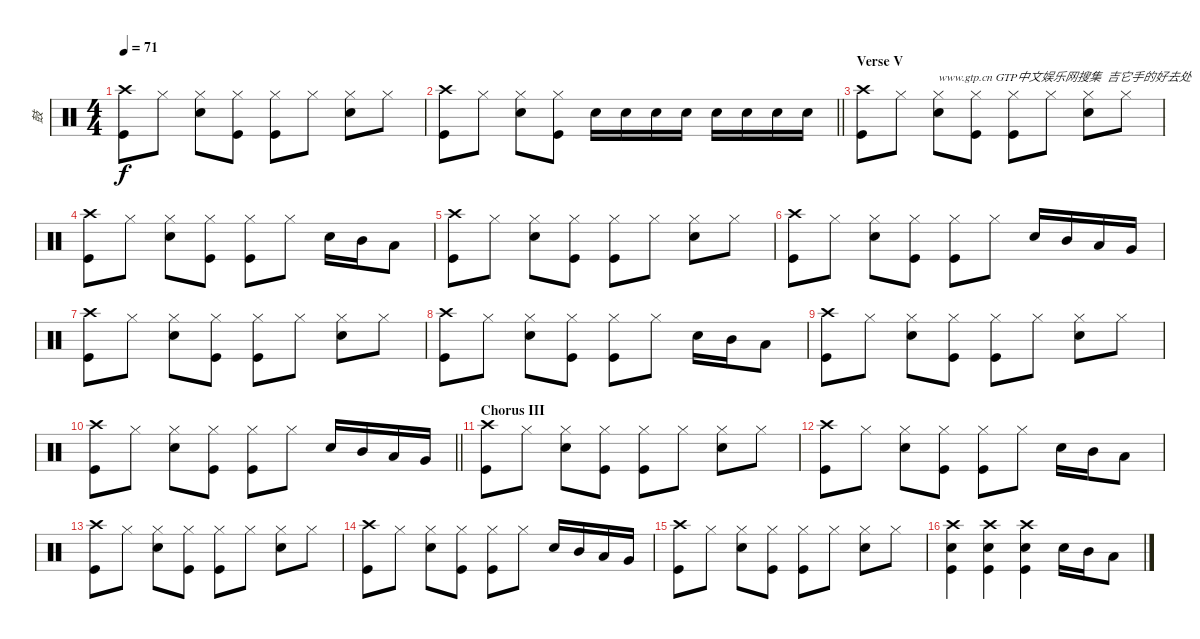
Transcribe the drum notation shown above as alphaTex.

\track ("鼓" "鼓") {instrument percussion}
\staff {score}
\articulation defaults
\ts (4 4)
\tempo 71
\clef neutral
\ks c
("Crash high (hit)" "Kick (hit)").8{dy f} "Hi-Hat (closed)".8 ("Hi-Hat (closed)" "Electric Snare (hit)").8 ("Hi-Hat (closed)" "Kick (hit)").8 ("Hi-Hat (closed)" "Kick (hit)").8 "Hi-Hat (closed)".8 ("Hi-Hat (closed)" "Electric Snare (hit)").8 "Hi-Hat (closed)".8 |
\barLineRight lightlight
("Crash high (hit)" "Kick (hit)").8 "Hi-Hat (closed)".8 ("Hi-Hat (closed)" "Electric Snare (hit)").8 ("Hi-Hat (closed)" "Kick (hit)").8 "Electric Snare (hit)".16 "Electric Snare (hit)".16 "Electric Snare (hit)".16 "Electric Snare (hit)".16 "Electric Snare (hit)".16 "Electric Snare (hit)".16 "Electric Snare (hit)".16 "Electric Snare (hit)".16 |
\section ("" "Verse V")
("Crash high (hit)" "Kick (hit)").8 "Hi-Hat (closed)".8 ("Hi-Hat (closed)" "Electric Snare (hit)").8{txt "www.gtp.cn GTP中文娱乐网搜集  吉它手的好去处"} ("Hi-Hat (closed)" "Kick (hit)").8 ("Hi-Hat (closed)" "Kick (hit)").8 "Hi-Hat (closed)".8 ("Hi-Hat (closed)" "Electric Snare (hit)").8 "Hi-Hat (closed)".8 |
("Crash high (hit)" "Kick (hit)").8 "Hi-Hat (closed)".8 ("Hi-Hat (closed)" "Electric Snare (hit)").8 ("Hi-Hat (closed)" "Kick (hit)").8 ("Hi-Hat (closed)" "Kick (hit)").8 "Hi-Hat (closed)".8 "Electric Snare (hit)".16 "Mid Tom (hit)".16 "Low Tom (hit)".8 |
("Crash high (hit)" "Kick (hit)").8 "Hi-Hat (closed)".8 ("Hi-Hat (closed)" "Electric Snare (hit)").8 ("Hi-Hat (closed)" "Kick (hit)").8 ("Hi-Hat (closed)" "Kick (hit)").8 "Hi-Hat (closed)".8 ("Hi-Hat (closed)" "Electric Snare (hit)").8 "Hi-Hat (closed)".8 |
("Crash high (hit)" "Kick (hit)").8 "Hi-Hat (closed)".8 ("Hi-Hat (closed)" "Electric Snare (hit)").8 ("Hi-Hat (closed)" "Kick (hit)").8 ("Hi-Hat (closed)" "Kick (hit)").8 "Hi-Hat (closed)".8 "Electric Snare (hit)".16 "Mid Tom (hit)".16 "Low Tom (hit)".16 "Very Low Tom (hit)".16 |
("Crash high (hit)" "Kick (hit)").8 "Hi-Hat (closed)".8 ("Hi-Hat (closed)" "Electric Snare (hit)").8 ("Hi-Hat (closed)" "Kick (hit)").8 ("Hi-Hat (closed)" "Kick (hit)").8 "Hi-Hat (closed)".8 ("Hi-Hat (closed)" "Electric Snare (hit)").8 "Hi-Hat (closed)".8 |
("Crash high (hit)" "Kick (hit)").8 "Hi-Hat (closed)".8 ("Hi-Hat (closed)" "Electric Snare (hit)").8 ("Hi-Hat (closed)" "Kick (hit)").8 ("Hi-Hat (closed)" "Kick (hit)").8 "Hi-Hat (closed)".8 "Electric Snare (hit)".16 "Mid Tom (hit)".16 "Low Tom (hit)".8 |
("Crash high (hit)" "Kick (hit)").8 "Hi-Hat (closed)".8 ("Hi-Hat (closed)" "Electric Snare (hit)").8 ("Hi-Hat (closed)" "Kick (hit)").8 ("Hi-Hat (closed)" "Kick (hit)").8 "Hi-Hat (closed)".8 ("Hi-Hat (closed)" "Electric Snare (hit)").8 "Hi-Hat (closed)".8 |
\barLineRight lightlight
("Crash high (hit)" "Kick (hit)").8 "Hi-Hat (closed)".8 ("Hi-Hat (closed)" "Electric Snare (hit)").8 ("Hi-Hat (closed)" "Kick (hit)").8 ("Hi-Hat (closed)" "Kick (hit)").8 "Hi-Hat (closed)".8 "Electric Snare (hit)".16 "Mid Tom (hit)".16 "Low Tom (hit)".16 "Very Low Tom (hit)".16 |
\section ("" "Chorus III")
("Crash high (hit)" "Kick (hit)").8 "Hi-Hat (closed)".8 ("Hi-Hat (closed)" "Electric Snare (hit)").8 ("Hi-Hat (closed)" "Kick (hit)").8 ("Hi-Hat (closed)" "Kick (hit)").8 "Hi-Hat (closed)".8 ("Hi-Hat (closed)" "Electric Snare (hit)").8 "Hi-Hat (closed)".8 |
("Crash high (hit)" "Kick (hit)").8 "Hi-Hat (closed)".8 ("Hi-Hat (closed)" "Electric Snare (hit)").8 ("Hi-Hat (closed)" "Kick (hit)").8 ("Hi-Hat (closed)" "Kick (hit)").8 "Hi-Hat (closed)".8 "Electric Snare (hit)".16 "Mid Tom (hit)".16 "Low Tom (hit)".8 |
("Crash high (hit)" "Kick (hit)").8 "Hi-Hat (closed)".8 ("Hi-Hat (closed)" "Electric Snare (hit)").8 ("Hi-Hat (closed)" "Kick (hit)").8 ("Hi-Hat (closed)" "Kick (hit)").8 "Hi-Hat (closed)".8 ("Hi-Hat (closed)" "Electric Snare (hit)").8 "Hi-Hat (closed)".8 |
("Crash high (hit)" "Kick (hit)").8 "Hi-Hat (closed)".8 ("Hi-Hat (closed)" "Electric Snare (hit)").8 ("Hi-Hat (closed)" "Kick (hit)").8 ("Hi-Hat (closed)" "Kick (hit)").8 "Hi-Hat (closed)".8 "Electric Snare (hit)".16 "Mid Tom (hit)".16 "Low Tom (hit)".16 "Very Low Tom (hit)".16 |
("Crash high (hit)" "Kick (hit)").8 "Hi-Hat (closed)".8 ("Hi-Hat (closed)" "Electric Snare (hit)").8 ("Hi-Hat (closed)" "Kick (hit)").8 ("Hi-Hat (closed)" "Kick (hit)").8 "Hi-Hat (closed)".8 ("Hi-Hat (closed)" "Electric Snare (hit)").8 "Hi-Hat (closed)".8 |
("Crash high (hit)" "Electric Snare (hit)" "Kick (hit)").4 ("Crash high (hit)" "Electric Snare (hit)" "Kick (hit)").4 ("Crash high (hit)" "Electric Snare (hit)" "Kick (hit)").4 "Electric Snare (hit)".16 "Mid Tom (hit)".16 "Low Tom (hit)".8
